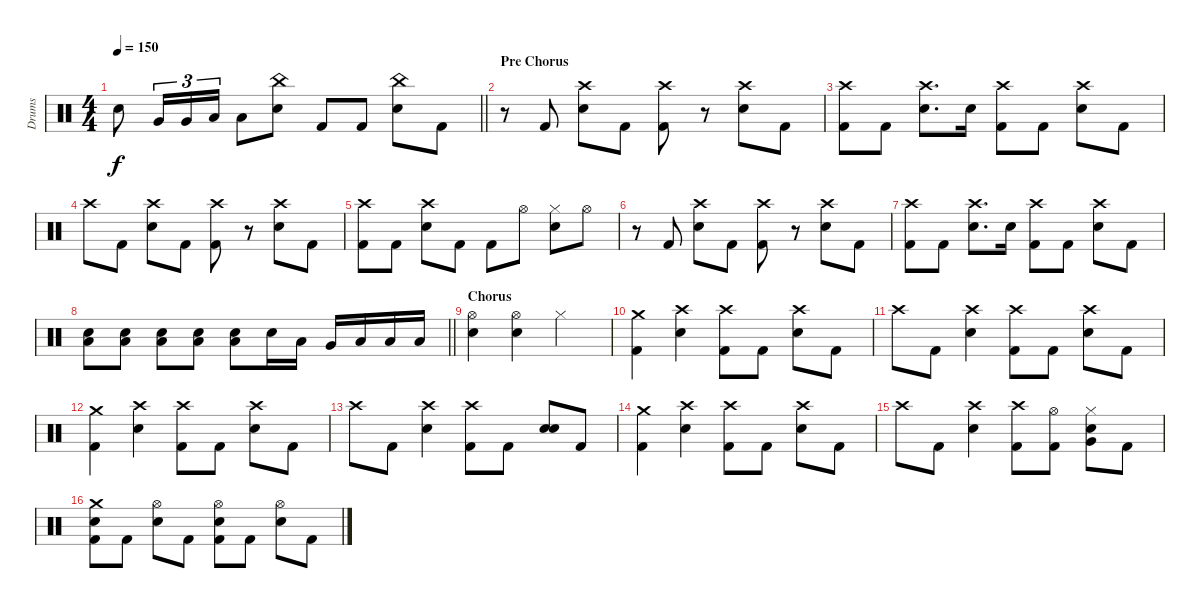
\track ("Drums" "Drums") {instrument percussion}
\staff {score}
\articulation defaults
\ts (4 4)
\tempo 150
\clef neutral
\barLineRight lightlight
\ks c "Electric Snare (hit)".8{dy f} "Very Low Tom (hit)".16{tu (3 2)} "Very Low Tom (hit)".16{tu (3 2)} "Low Floor Tom (hit)".16{tu (3 2)} "Low Floor Tom (hit)".8
("China (hit)" "Electric Snare (hit)").8 "Kick (hit) 2".8 "Kick (hit) 2".8 ("China (hit)" "Electric Snare (hit)").8 "Kick (hit) 2".8 |
\section ("" "Pre Chorus")
r.8 "Kick (hit) 2".8 ("Crash high (hit)" "Electric Snare (hit)").8 "Kick (hit) 2".8 ("Crash high (hit)" "Kick (hit) 2").8 r.8 ("Crash high (hit)" "Electric Snare (hit)").8 "Kick (hit) 2".8 |
("Crash high (hit)" "Kick (hit) 2").8 "Kick (hit) 2".8 ("Crash high (hit)" "Electric Snare (hit)").8{d} "Electric Snare (hit)".16 ("Crash high (hit)" "Kick (hit) 2").8 "Kick (hit) 2".8 ("Crash high (hit)" "Electric Snare (hit)").8 "Kick (hit) 2".8 |
"Crash high (hit)".8 "Kick (hit) 2".8 ("Crash high (hit)" "Electric Snare (hit)").8 "Kick (hit) 2".8 ("Crash high (hit)" "Kick (hit) 2").8 r.8 ("Crash high (hit)" "Electric Snare (hit)").8 "Kick (hit) 2".8 |
("Crash high (hit)" "Kick (hit) 2").8 "Kick (hit) 2".8 ("Crash high (hit)" "Electric Snare (hit)").8 "Kick (hit) 2".8 "Kick (hit) 2".8 "Hi-Hat (open)".8 ("Hi-Hat (closed)" "Electric Snare (hit)").8 "Hi-Hat (open)".8 |
r.8 "Kick (hit) 2".8 ("Crash high (hit)" "Electric Snare (hit)").8 "Kick (hit) 2".8 ("Crash high (hit)" "Kick (hit) 2").8 r.8 ("Crash high (hit)" "Electric Snare (hit)").8 "Kick (hit) 2".8 |
("Crash high (hit)" "Kick (hit) 2").8 "Kick (hit) 2".8 ("Crash high (hit)" "Electric Snare (hit)").8{d} "Electric Snare (hit)".16 ("Crash high (hit)" "Kick (hit) 2").8 "Kick (hit) 2".8 ("Crash high (hit)" "Electric Snare (hit)").8 "Kick (hit) 2".8 |
\barLineRight lightlight
("Electric Snare (hit)" "Low Floor Tom (hit)").8 ("Electric Snare (hit)" "Low Floor Tom (hit)").8 ("Electric Snare (hit)" "Low Floor Tom (hit)").8 ("Electric Snare (hit)" "Low Floor Tom (hit)").8 ("Electric Snare (hit)" "Low Floor Tom (hit)").8 "Electric Snare (hit)".16 "Low Tom (hit)".16 "Very Low Tom (hit)".16 "Low Floor Tom (hit)".16 "Low Floor Tom (hit)".16 "Low Floor Tom (hit)".16 |
\section ("" "Chorus")
("Hi-Hat (open)" "Electric Snare (hit)").4 ("Hi-Hat (open)" "Electric Snare (hit)").4 "Hi-Hat (closed)".2 |
("Crash medium (hit)" "Kick (hit) 2").4 ("Crash high (hit)" "Electric Snare (hit)").4 ("Crash high (hit)" "Kick (hit) 2").8 "Kick (hit) 2".8 ("Crash high (hit)" "Electric Snare (hit)").8 "Kick (hit) 2".8 |
"Crash high (hit)".8 "Kick (hit) 2".8 ("Crash high (hit)" "Electric Snare (hit)").4 ("Crash high (hit)" "Kick (hit) 2").8 "Kick (hit) 2".8 ("Crash high (hit)" "Electric Snare (hit)").8 "Kick (hit) 2".8 |
("Crash medium (hit)" "Kick (hit) 2").4 ("Crash high (hit)" "Electric Snare (hit)").4 ("Crash high (hit)" "Kick (hit) 2").8 "Kick (hit) 2".8 ("Crash high (hit)" "Electric Snare (hit)").8 "Kick (hit) 2".8 |
"Crash high (hit)".8 "Kick (hit) 2".8 ("Crash high (hit)" "Electric Snare (hit)").4 ("Crash high (hit)" "Kick (hit) 2").8 "Kick (hit) 2".8 ("Electric Snare (hit)" "Electric Snare (hit)").8 "Kick (hit) 2".8 |
("Crash medium (hit)" "Kick (hit) 2").4 ("Crash high (hit)" "Electric Snare (hit)").4 ("Crash high (hit)" "Kick (hit) 2").8 "Kick (hit) 2".8 ("Crash high (hit)" "Electric Snare (hit)").8 "Kick (hit) 2".8 |
"Crash high (hit)".8 "Kick (hit) 2".8 ("Crash high (hit)" "Electric Snare (hit)").4 ("Crash high (hit)" "Kick (hit) 2").8 ("Hi-Hat (open)" "Kick (hit) 2").8 ("Hi-Hat (closed)" "Electric Snare (hit)" "Very Low Tom (hit)").8 "Kick (hit) 2".8 |
("Crash medium (hit)" "Electric Snare (hit)" "Kick (hit) 2").8 "Kick (hit) 2".8 ("Hi-Hat (open)" "Electric Snare (hit)").8 "Kick (hit) 2".8 ("Hi-Hat (open)" "Electric Snare (hit)" "Kick (hit) 2").8 "Kick (hit) 2".8 ("Hi-Hat (open)" "Electric Snare (hit)").8 "Kick (hit) 2".8
